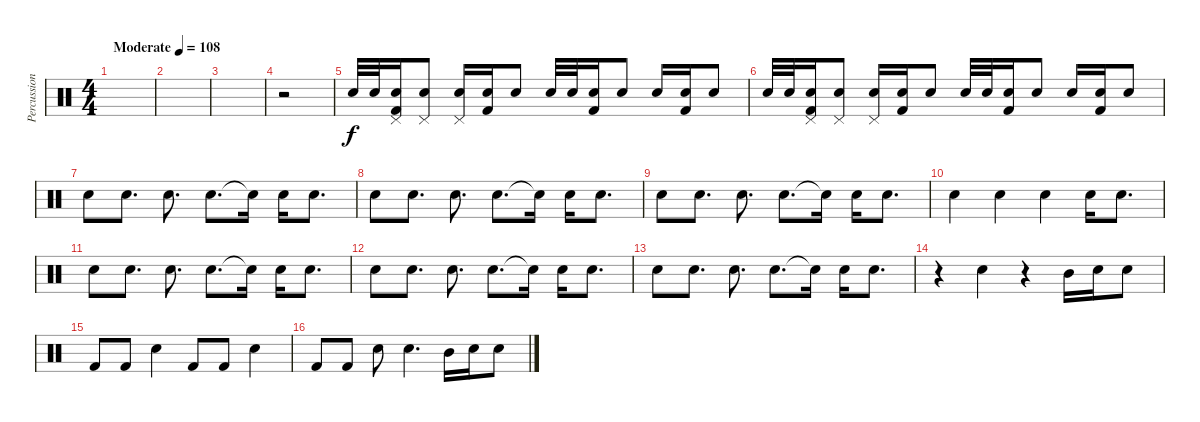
\track ("Percussion" "Percussion") {instrument percussion}
\staff {score}
\articulation defaults
\ts (4 4)
\tempo (108 "Moderate")
\clef neutral
\ks c
|
|
|
r.2 |
"Snare (hit) 2".32 "Snare (hit) 2".32 ("Snare (hit) 2" "Kick (hit) 2" "Pedal Hi-Hat (hit)").16 ("Snare (hit) 2" "Pedal Hi-Hat (hit)").8 ("Snare (hit) 2" "Pedal Hi-Hat (hit)").16 ("Snare (hit) 2" "Kick (hit) 2").16 "Snare (hit) 2".8 "Snare (hit) 2".32 "Snare (hit) 2".32 ("Snare (hit) 2" "Kick (hit) 2").16 "Snare (hit) 2".8 "Snare (hit) 2".16 ("Snare (hit) 2" "Kick (hit) 2").16 "Snare (hit) 2".8 |
"Snare (hit) 2".32 "Snare (hit) 2".32 ("Snare (hit) 2" "Kick (hit) 2" "Pedal Hi-Hat (hit)").16 ("Snare (hit) 2" "Pedal Hi-Hat (hit)").8 ("Snare (hit) 2" "Pedal Hi-Hat (hit)").16 ("Snare (hit) 2" "Kick (hit) 2").16 "Snare (hit) 2".8 "Snare (hit) 2".32 "Snare (hit) 2".32 ("Snare (hit) 2" "Kick (hit) 2").16 "Snare (hit) 2".8 "Snare (hit) 2".16 ("Snare (hit) 2" "Kick (hit) 2").16 "Snare (hit) 2".8 |
"Snare (hit) 2".8 "Snare (hit) 2".8{d} "Snare (hit) 2".8{d} "Snare (hit) 2".8{d} "Snare (hit) 2"{t}.16 "Snare (hit) 2".16 "Snare (hit) 2".8{d} |
"Snare (hit) 2".8 "Snare (hit) 2".8{d} "Snare (hit) 2".8{d} "Snare (hit) 2".8{d} "Snare (hit) 2"{t}.16 "Snare (hit) 2".16 "Snare (hit) 2".8{d} |
"Snare (hit) 2".8 "Snare (hit) 2".8{d} "Snare (hit) 2".8{d} "Snare (hit) 2".8{d} "Snare (hit) 2"{t}.16 "Snare (hit) 2".16 "Snare (hit) 2".8{d} |
"Snare (hit) 2".4 "Snare (hit) 2".4 "Snare (hit) 2".4 "Snare (hit) 2".16 "Snare (hit) 2".8{d} |
"Snare (hit) 2".8 "Snare (hit) 2".8{d} "Snare (hit) 2".8{d} "Snare (hit) 2".8{d} "Snare (hit) 2"{t}.16 "Snare (hit) 2".16 "Snare (hit) 2".8{d} |
"Snare (hit) 2".8 "Snare (hit) 2".8{d} "Snare (hit) 2".8{d} "Snare (hit) 2".8{d} "Snare (hit) 2"{t}.16 "Snare (hit) 2".16 "Snare (hit) 2".8{d} |
"Snare (hit) 2".8 "Snare (hit) 2".8{d} "Snare (hit) 2".8{d} "Snare (hit) 2".8{d} "Snare (hit) 2"{t}.16 "Snare (hit) 2".16 "Snare (hit) 2".8{d} |
r.4 "Snare (hit) 2".4 r.4 "Mid Tom (hit)".16 "Snare (hit) 2".16 "Snare (hit) 2".8 |
"Kick (hit) 2".8 "Kick (hit) 2".8 "Snare (hit) 2".4 "Kick (hit) 2".8 "Kick (hit) 2".8 "Snare (hit) 2".4 |
"Kick (hit) 2".8 "Kick (hit) 2".8 "Snare (hit) 2".8 "Snare (hit) 2".4{d} "Mid Tom (hit)".16 "Snare (hit) 2".16 "Snare (hit) 2".8
